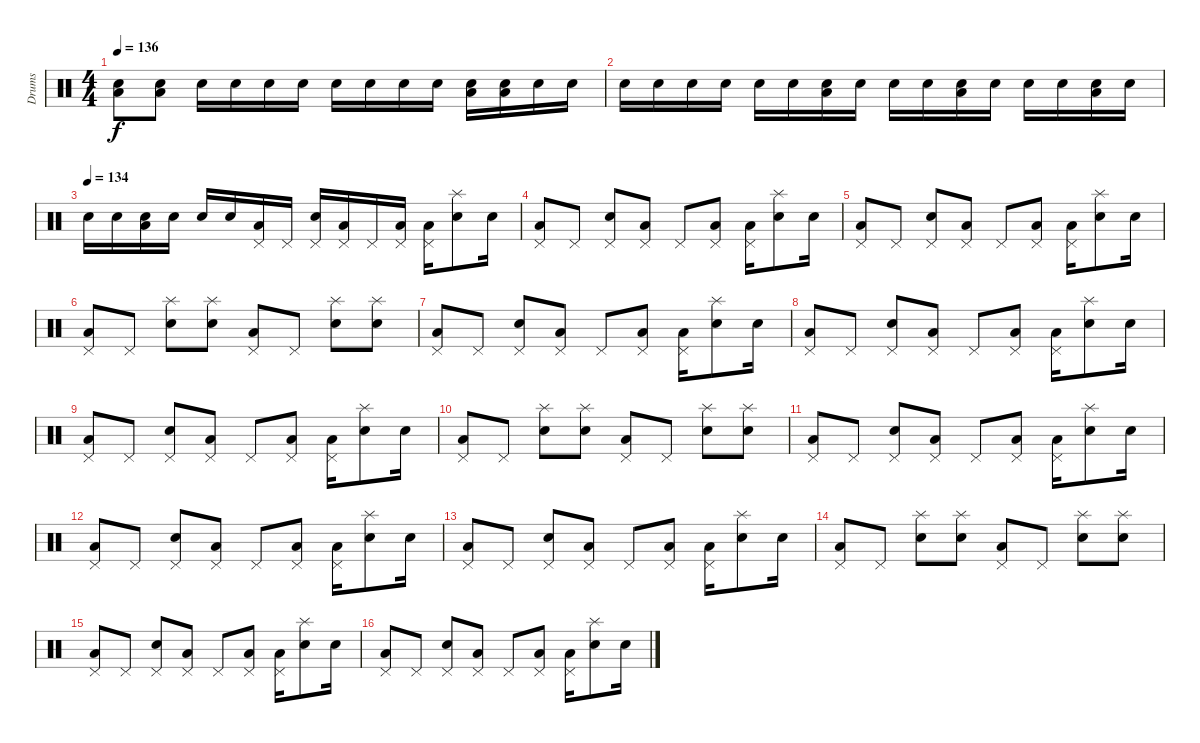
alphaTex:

\track ("Drums" "Drums") {instrument percussion}
\staff {score}
\articulation defaults
\ts (4 4)
\tempo 136
\clef neutral
\ks c
("Electric Snare (hit)" "Low Floor Tom (hit)").8{dy f} ("Electric Snare (hit)" "Low Floor Tom (hit)").8 "Electric Snare (hit)".16 "Electric Snare (hit)".16 "Electric Snare (hit)".16 "Electric Snare (hit)".16 "Electric Snare (hit)".16 "Electric Snare (hit)".16 "Electric Snare (hit)".16 "Electric Snare (hit)".16 ("Electric Snare (hit)" "Low Floor Tom (hit)").16 ("Electric Snare (hit)" "Low Floor Tom (hit)").16 "Electric Snare (hit)".16 "Electric Snare (hit)".16 |
"Electric Snare (hit)".16 "Electric Snare (hit)".16 "Electric Snare (hit)".16 "Electric Snare (hit)".16 "Electric Snare (hit)".16 "Electric Snare (hit)".16 ("Electric Snare (hit)" "Low Floor Tom (hit)").16 "Electric Snare (hit)".16 "Electric Snare (hit)".16 "Electric Snare (hit)".16 ("Electric Snare (hit)" "Low Floor Tom (hit)").16 "Electric Snare (hit)".16 "Electric Snare (hit)".16 "Electric Snare (hit)".16 ("Electric Snare (hit)" "Low Floor Tom (hit)").16 "Electric Snare (hit)".16 |
\tempo (134)
"Electric Snare (hit)".16 "Electric Snare (hit)".16 ("Electric Snare (hit)" "Low Floor Tom (hit)").16 "Electric Snare (hit)".16 "Electric Snare (hit)".16 "Electric Snare (hit)".16 ("Low Floor Tom (hit)" "Pedal Hi-Hat (hit)").16 "Pedal Hi-Hat (hit)".16 ("Electric Snare (hit)" "Pedal Hi-Hat (hit)").16 ("Low Floor Tom (hit)" "Pedal Hi-Hat (hit)").16 "Pedal Hi-Hat (hit)".16 ("Low Floor Tom (hit)" "Pedal Hi-Hat (hit)").16 ("Low Floor Tom (hit)" "Pedal Hi-Hat (hit)").16 ("Electric Snare (hit)" "Splash (hit)").8 "Electric Snare (hit)".16 |
("Low Floor Tom (hit)" "Pedal Hi-Hat (hit)").8 "Pedal Hi-Hat (hit)".8 ("Electric Snare (hit)" "Pedal Hi-Hat (hit)").8 ("Low Floor Tom (hit)" "Pedal Hi-Hat (hit)").8 "Pedal Hi-Hat (hit)".8 ("Low Floor Tom (hit)" "Pedal Hi-Hat (hit)").8 ("Low Floor Tom (hit)" "Pedal Hi-Hat (hit)").16 ("Electric Snare (hit)" "Splash (hit)").8 "Electric Snare (hit)".16 |
("Low Floor Tom (hit)" "Pedal Hi-Hat (hit)").8 "Pedal Hi-Hat (hit)".8 ("Electric Snare (hit)" "Pedal Hi-Hat (hit)").8 ("Low Floor Tom (hit)" "Pedal Hi-Hat (hit)").8 "Pedal Hi-Hat (hit)".8 ("Low Floor Tom (hit)" "Pedal Hi-Hat (hit)").8 ("Low Floor Tom (hit)" "Pedal Hi-Hat (hit)").16 ("Electric Snare (hit)" "Splash (hit)").8 "Electric Snare (hit)".16 |
("Low Floor Tom (hit)" "Pedal Hi-Hat (hit)").8 "Pedal Hi-Hat (hit)".8 ("Electric Snare (hit)" "Splash (hit)").8 ("Electric Snare (hit)" "Splash (hit)").8 ("Low Floor Tom (hit)" "Pedal Hi-Hat (hit)").8 "Pedal Hi-Hat (hit)".8 ("Electric Snare (hit)" "Splash (hit)").8 ("Electric Snare (hit)" "Splash (hit)").8 |
("Low Floor Tom (hit)" "Pedal Hi-Hat (hit)").8 "Pedal Hi-Hat (hit)".8 ("Electric Snare (hit)" "Pedal Hi-Hat (hit)").8 ("Low Floor Tom (hit)" "Pedal Hi-Hat (hit)").8 "Pedal Hi-Hat (hit)".8 ("Low Floor Tom (hit)" "Pedal Hi-Hat (hit)").8 ("Low Floor Tom (hit)" "Pedal Hi-Hat (hit)").16 ("Electric Snare (hit)" "Splash (hit)").8 "Electric Snare (hit)".16 |
("Low Floor Tom (hit)" "Pedal Hi-Hat (hit)").8 "Pedal Hi-Hat (hit)".8 ("Electric Snare (hit)" "Pedal Hi-Hat (hit)").8 ("Low Floor Tom (hit)" "Pedal Hi-Hat (hit)").8 "Pedal Hi-Hat (hit)".8 ("Low Floor Tom (hit)" "Pedal Hi-Hat (hit)").8 ("Low Floor Tom (hit)" "Pedal Hi-Hat (hit)").16 ("Electric Snare (hit)" "Splash (hit)").8 "Electric Snare (hit)".16 |
("Low Floor Tom (hit)" "Pedal Hi-Hat (hit)").8 "Pedal Hi-Hat (hit)".8 ("Electric Snare (hit)" "Pedal Hi-Hat (hit)").8 ("Low Floor Tom (hit)" "Pedal Hi-Hat (hit)").8 "Pedal Hi-Hat (hit)".8 ("Low Floor Tom (hit)" "Pedal Hi-Hat (hit)").8 ("Low Floor Tom (hit)" "Pedal Hi-Hat (hit)").16 ("Electric Snare (hit)" "Splash (hit)").8 "Electric Snare (hit)".16 |
("Low Floor Tom (hit)" "Pedal Hi-Hat (hit)").8 "Pedal Hi-Hat (hit)".8 ("Electric Snare (hit)" "Splash (hit)").8 ("Electric Snare (hit)" "Splash (hit)").8 ("Low Floor Tom (hit)" "Pedal Hi-Hat (hit)").8 "Pedal Hi-Hat (hit)".8 ("Electric Snare (hit)" "Splash (hit)").8 ("Electric Snare (hit)" "Splash (hit)").8 |
("Low Floor Tom (hit)" "Pedal Hi-Hat (hit)").8 "Pedal Hi-Hat (hit)".8 ("Electric Snare (hit)" "Pedal Hi-Hat (hit)").8 ("Low Floor Tom (hit)" "Pedal Hi-Hat (hit)").8 "Pedal Hi-Hat (hit)".8 ("Low Floor Tom (hit)" "Pedal Hi-Hat (hit)").8 ("Low Floor Tom (hit)" "Pedal Hi-Hat (hit)").16 ("Electric Snare (hit)" "Splash (hit)").8 "Electric Snare (hit)".16 |
("Low Floor Tom (hit)" "Pedal Hi-Hat (hit)").8 "Pedal Hi-Hat (hit)".8 ("Electric Snare (hit)" "Pedal Hi-Hat (hit)").8 ("Low Floor Tom (hit)" "Pedal Hi-Hat (hit)").8 "Pedal Hi-Hat (hit)".8 ("Low Floor Tom (hit)" "Pedal Hi-Hat (hit)").8 ("Low Floor Tom (hit)" "Pedal Hi-Hat (hit)").16 ("Electric Snare (hit)" "Splash (hit)").8 "Electric Snare (hit)".16 |
("Low Floor Tom (hit)" "Pedal Hi-Hat (hit)").8 "Pedal Hi-Hat (hit)".8 ("Electric Snare (hit)" "Pedal Hi-Hat (hit)").8 ("Low Floor Tom (hit)" "Pedal Hi-Hat (hit)").8 "Pedal Hi-Hat (hit)".8 ("Low Floor Tom (hit)" "Pedal Hi-Hat (hit)").8 ("Low Floor Tom (hit)" "Pedal Hi-Hat (hit)").16 ("Electric Snare (hit)" "Splash (hit)").8 "Electric Snare (hit)".16 |
("Low Floor Tom (hit)" "Pedal Hi-Hat (hit)").8 "Pedal Hi-Hat (hit)".8 ("Electric Snare (hit)" "Splash (hit)").8 ("Electric Snare (hit)" "Splash (hit)").8 ("Low Floor Tom (hit)" "Pedal Hi-Hat (hit)").8 "Pedal Hi-Hat (hit)".8 ("Electric Snare (hit)" "Splash (hit)").8 ("Electric Snare (hit)" "Splash (hit)").8 |
("Low Floor Tom (hit)" "Pedal Hi-Hat (hit)").8 "Pedal Hi-Hat (hit)".8 ("Electric Snare (hit)" "Pedal Hi-Hat (hit)").8 ("Low Floor Tom (hit)" "Pedal Hi-Hat (hit)").8 "Pedal Hi-Hat (hit)".8 ("Low Floor Tom (hit)" "Pedal Hi-Hat (hit)").8 ("Low Floor Tom (hit)" "Pedal Hi-Hat (hit)").16 ("Electric Snare (hit)" "Splash (hit)").8 "Electric Snare (hit)".16 |
("Low Floor Tom (hit)" "Pedal Hi-Hat (hit)").8 "Pedal Hi-Hat (hit)".8 ("Electric Snare (hit)" "Pedal Hi-Hat (hit)").8 ("Low Floor Tom (hit)" "Pedal Hi-Hat (hit)").8 "Pedal Hi-Hat (hit)".8 ("Low Floor Tom (hit)" "Pedal Hi-Hat (hit)").8 ("Low Floor Tom (hit)" "Pedal Hi-Hat (hit)").16 ("Electric Snare (hit)" "Splash (hit)").8 "Electric Snare (hit)".16
